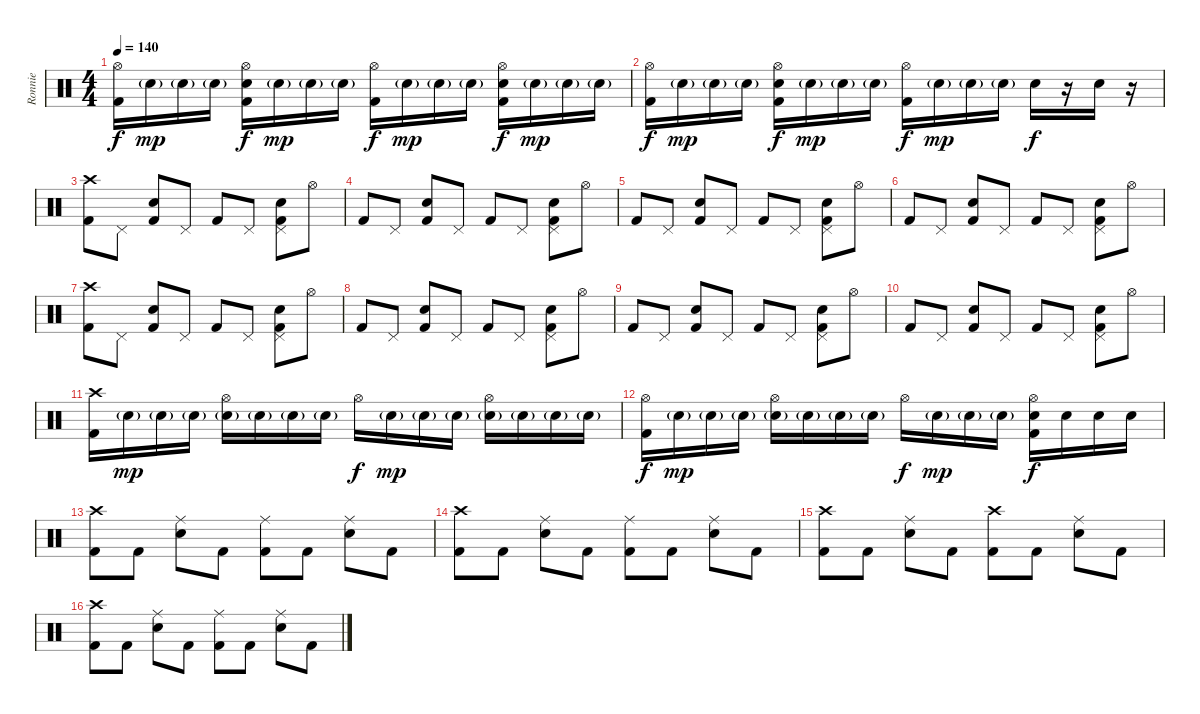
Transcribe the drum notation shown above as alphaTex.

\track ("Ronnie" "Ronnie") {instrument percussion}
\staff {score}
\articulation defaults
\ts (4 4)
\tempo 140
\clef neutral
\ks c
("Hi-Hat (open)" "Kick (hit) 2").16{dy f} "Electric Snare (hit)"{g}.16{dy mp} "Electric Snare (hit)"{g}.16 "Electric Snare (hit)"{g}.16 ("Hi-Hat (open)" "Electric Snare (hit)" "Kick (hit) 2").16{dy f} "Electric Snare (hit)"{g}.16{dy mp} "Electric Snare (hit)"{g}.16 "Electric Snare (hit)"{g}.16 ("Hi-Hat (open)" "Kick (hit) 2").16{dy f} "Electric Snare (hit)"{g}.16{dy mp} "Electric Snare (hit)"{g}.16 "Electric Snare (hit)"{g}.16 ("Hi-Hat (open)" "Electric Snare (hit)" "Kick (hit) 2").16{dy f} "Electric Snare (hit)"{g}.16{dy mp} "Electric Snare (hit)"{g}.16 "Electric Snare (hit)"{g}.16 |
("Hi-Hat (open)" "Kick (hit) 2").16{dy f} "Electric Snare (hit)"{g}.16{dy mp} "Electric Snare (hit)"{g}.16 "Electric Snare (hit)"{g}.16 ("Hi-Hat (open)" "Electric Snare (hit)" "Kick (hit) 2").16{dy f} "Electric Snare (hit)"{g}.16{dy mp} "Electric Snare (hit)"{g}.16 "Electric Snare (hit)"{g}.16 ("Hi-Hat (open)" "Kick (hit) 2").16{dy f} "Electric Snare (hit)"{g}.16{dy mp} "Electric Snare (hit)"{g}.16 "Electric Snare (hit)"{g}.16 "Electric Snare (hit)".16{dy f} r.16 "Electric Snare (hit)".16 r.16 |
("Crash high (hit)" "Kick (hit) 2").8 "Pedal Hi-Hat (hit)".8 ("Kick (hit) 2" "Electric Snare (hit)").8 "Pedal Hi-Hat (hit)".8 "Kick (hit) 2".8 "Pedal Hi-Hat (hit)".8 ("Pedal Hi-Hat (hit)" "Kick (hit) 2" "Electric Snare (hit)").8 "Hi-Hat (open)".8 |
"Kick (hit) 2".8 "Pedal Hi-Hat (hit)".8 ("Kick (hit) 2" "Electric Snare (hit)").8 "Pedal Hi-Hat (hit)".8 "Kick (hit) 2".8 "Pedal Hi-Hat (hit)".8 ("Pedal Hi-Hat (hit)" "Kick (hit) 2" "Electric Snare (hit)").8 "Hi-Hat (open)".8 |
"Kick (hit) 2".8 "Pedal Hi-Hat (hit)".8 ("Kick (hit) 2" "Electric Snare (hit)").8 "Pedal Hi-Hat (hit)".8 "Kick (hit) 2".8 "Pedal Hi-Hat (hit)".8 ("Pedal Hi-Hat (hit)" "Kick (hit) 2" "Electric Snare (hit)").8 "Hi-Hat (open)".8 |
"Kick (hit) 2".8 "Pedal Hi-Hat (hit)".8 ("Kick (hit) 2" "Electric Snare (hit)").8 "Pedal Hi-Hat (hit)".8 "Kick (hit) 2".8 "Pedal Hi-Hat (hit)".8 ("Pedal Hi-Hat (hit)" "Kick (hit) 2" "Electric Snare (hit)").8 "Hi-Hat (open)".8 |
("Crash high (hit)" "Kick (hit) 2").8 "Pedal Hi-Hat (hit)".8 ("Kick (hit) 2" "Electric Snare (hit)").8 "Pedal Hi-Hat (hit)".8 "Kick (hit) 2".8 "Pedal Hi-Hat (hit)".8 ("Pedal Hi-Hat (hit)" "Kick (hit) 2" "Electric Snare (hit)").8 "Hi-Hat (open)".8 |
"Kick (hit) 2".8 "Pedal Hi-Hat (hit)".8 ("Kick (hit) 2" "Electric Snare (hit)").8 "Pedal Hi-Hat (hit)".8 "Kick (hit) 2".8 "Pedal Hi-Hat (hit)".8 ("Pedal Hi-Hat (hit)" "Kick (hit) 2" "Electric Snare (hit)").8 "Hi-Hat (open)".8 |
"Kick (hit) 2".8 "Pedal Hi-Hat (hit)".8 ("Kick (hit) 2" "Electric Snare (hit)").8 "Pedal Hi-Hat (hit)".8 "Kick (hit) 2".8 "Pedal Hi-Hat (hit)".8 ("Pedal Hi-Hat (hit)" "Kick (hit) 2" "Electric Snare (hit)").8 "Hi-Hat (open)".8 |
"Kick (hit) 2".8 "Pedal Hi-Hat (hit)".8 ("Kick (hit) 2" "Electric Snare (hit)").8 "Pedal Hi-Hat (hit)".8 "Kick (hit) 2".8 "Pedal Hi-Hat (hit)".8 ("Pedal Hi-Hat (hit)" "Kick (hit) 2" "Electric Snare (hit)").8 "Hi-Hat (open)".8 |
("Crash high (hit)" "Kick (hit) 2").16 "Electric Snare (hit)"{g}.16{dy mp} "Electric Snare (hit)"{g}.16 "Electric Snare (hit)"{g}.16 ("Hi-Hat (open)" "Electric Snare (hit)"{g}).16 "Electric Snare (hit)"{g}.16 "Electric Snare (hit)"{g}.16 "Electric Snare (hit)"{g}.16 "Hi-Hat (open)".16{dy f} "Electric Snare (hit)"{g}.16{dy mp} "Electric Snare (hit)"{g}.16 "Electric Snare (hit)"{g}.16 ("Hi-Hat (open)" "Electric Snare (hit)"{g}).16 "Electric Snare (hit)"{g}.16 "Electric Snare (hit)"{g}.16 "Electric Snare (hit)"{g}.16 |
("Hi-Hat (open)" "Kick (hit) 2").16{dy f} "Electric Snare (hit)"{g}.16{dy mp} "Electric Snare (hit)"{g}.16 "Electric Snare (hit)"{g}.16 ("Hi-Hat (open)" "Electric Snare (hit)"{g}).16 "Electric Snare (hit)"{g}.16 "Electric Snare (hit)"{g}.16 "Electric Snare (hit)"{g}.16 "Hi-Hat (open)".16{dy f} "Electric Snare (hit)"{g}.16{dy mp} "Electric Snare (hit)"{g}.16 "Electric Snare (hit)"{g}.16 ("Hi-Hat (open)" "Electric Snare (hit)" "Kick (hit) 2").16{dy f} "Electric Snare (hit)".16 "Electric Snare (hit)".16 "Electric Snare (hit)".16 |
("Crash high (hit)" "Kick (hit) 2").8 "Kick (hit) 2".8 ("Electric Snare (hit)" "Ride (middle)").8 "Kick (hit) 2".8 ("Ride (middle)" "Kick (hit) 2").8 "Kick (hit) 2".8 ("Electric Snare (hit)" "Ride (middle)").8 "Kick (hit) 2".8 |
("Crash high (hit)" "Kick (hit) 2").8 "Kick (hit) 2".8 ("Electric Snare (hit)" "Ride (middle)").8 "Kick (hit) 2".8 ("Ride (middle)" "Kick (hit) 2").8 "Kick (hit) 2".8 ("Electric Snare (hit)" "Ride (middle)").8 "Kick (hit) 2".8 |
("Crash high (hit)" "Kick (hit) 2").8 "Kick (hit) 2".8 ("Electric Snare (hit)" "Ride (middle)").8 "Kick (hit) 2".8 ("Crash high (hit)" "Kick (hit) 2").8 "Kick (hit) 2".8 ("Electric Snare (hit)" "Ride (middle)").8 "Kick (hit) 2".8 |
("Crash high (hit)" "Kick (hit) 2").8 "Kick (hit) 2".8 ("Electric Snare (hit)" "Ride (middle)").8 "Kick (hit) 2".8 ("Ride (middle)" "Kick (hit) 2").8 "Kick (hit) 2".8 ("Electric Snare (hit)" "Ride (middle)").8 "Kick (hit) 2".8
